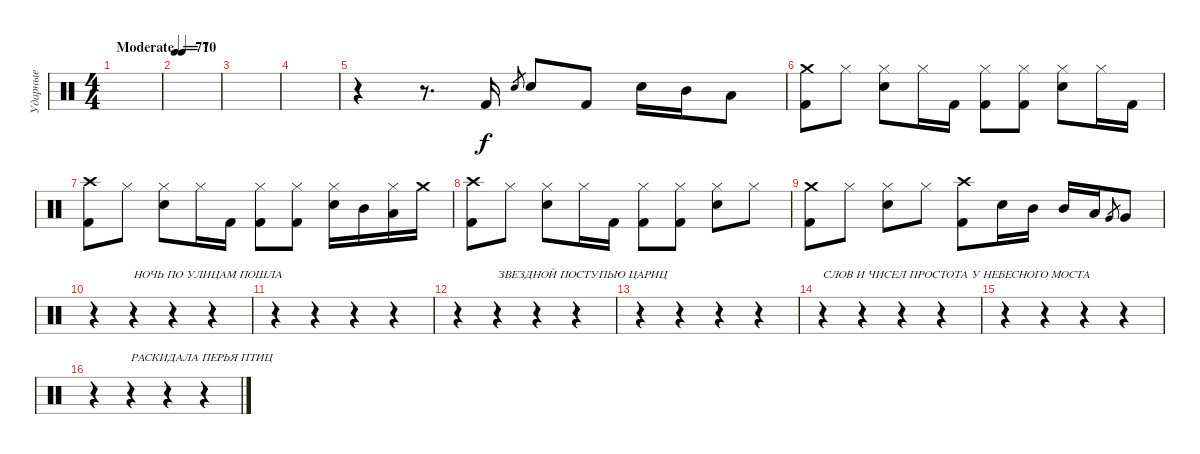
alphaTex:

\track ("Ударные" "Ударные") {instrument percussion}
\staff {score}
\articulation defaults
\ts (4 4)
\tempo (70 "Moderate")
\clef neutral
\ks c
|
\tempo 71
|
|
|
r.4 r.8{d} "Kick (hit) 2".16 "Snare (hit) 2".8{gr} "Snare (hit) 2".8 "Kick (hit) 2".8 "Snare (hit) 2".16 "Mid Tom (hit)".16 "Low Tom (hit)".8 |
("Crash medium (hit)" "Kick (hit) 2").8 "Hi-Hat (closed)".8 ("Hi-Hat (closed)" "Snare (hit) 2").8 "Hi-Hat (closed)".16 "Kick (hit) 2".16 ("Hi-Hat (closed)" "Kick (hit) 2").8 ("Hi-Hat (closed)" "Kick (hit) 2").8 ("Hi-Hat (closed)" "Snare (hit) 2").8 "Hi-Hat (closed)".16 "Kick (hit) 2".16 |
("Crash high (hit)" "Kick (hit) 2").8 "Hi-Hat (closed)".8 ("Hi-Hat (closed)" "Snare (hit) 2").8 "Hi-Hat (closed)".16 "Kick (hit) 2".16 ("Hi-Hat (closed)" "Kick (hit) 2").8 ("Hi-Hat (closed)" "Kick (hit) 2").8 ("Hi-Hat (closed)" "Snare (hit) 2").16 "Mid Tom (hit)".16 ("Hi-Hat (closed)" "Low Tom (hit)").16 "Crash medium (hit)".16 |
("Crash high (hit)" "Kick (hit) 2").8 "Hi-Hat (closed)".8 ("Hi-Hat (closed)" "Snare (hit) 2").8 "Hi-Hat (closed)".16 "Kick (hit) 2".16 ("Hi-Hat (closed)" "Kick (hit) 2").8 ("Hi-Hat (closed)" "Kick (hit) 2").8 ("Hi-Hat (closed)" "Snare (hit) 2").8 "Hi-Hat (closed)".8 |
("Crash medium (hit)" "Kick (hit) 2").8 "Hi-Hat (closed)".8 ("Hi-Hat (closed)" "Snare (hit) 2").8 "Hi-Hat (closed)".8 ("Crash high (hit)" "Kick (hit) 2").8 "Snare (hit) 2".16 "Mid Tom (hit)".16 "Mid Tom (hit)".16 "Low Tom (hit)".16 "Very Low Tom (hit)".8{gr} "Very Low Tom (hit)".8 |
r.4 r.4{txt "НОЧЬ ПО УЛИЦАМ ПОШЛА"} r.4 r.4 |
r.4 r.4 r.4 r.4 |
r.4 r.4{txt "ЗВЕЗДНОЙ ПОСТУПЬЮ ЦАРИЦ"} r.4 r.4 |
r.4 r.4 r.4 r.4 |
r.4{txt "СЛОВ И ЧИСЕЛ ПРОСТОТА У НЕБЕСНОГО МОСТА"} r.4 r.4 r.4 |
r.4 r.4 r.4 r.4 |
r.4 r.4{txt "РАСКИДАЛА ПЕРЬЯ ПТИЦ"} r.4 r.4
